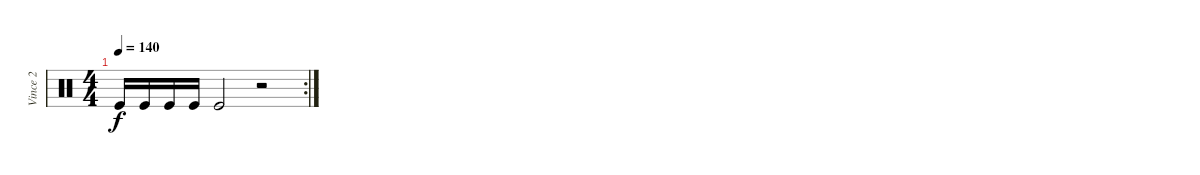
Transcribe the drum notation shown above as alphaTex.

\track ("Vince 2" "Vince 2") {instrument percussion}
\staff {score}
\articulation defaults
\rc 2
\ts (4 4)
\tempo 140
\clef neutral
\ks c "Kick (hit)".16{dy f} "Kick (hit)".16 "Kick (hit)".16 "Kick (hit)".16 "Kick (hit)".2
r.2
